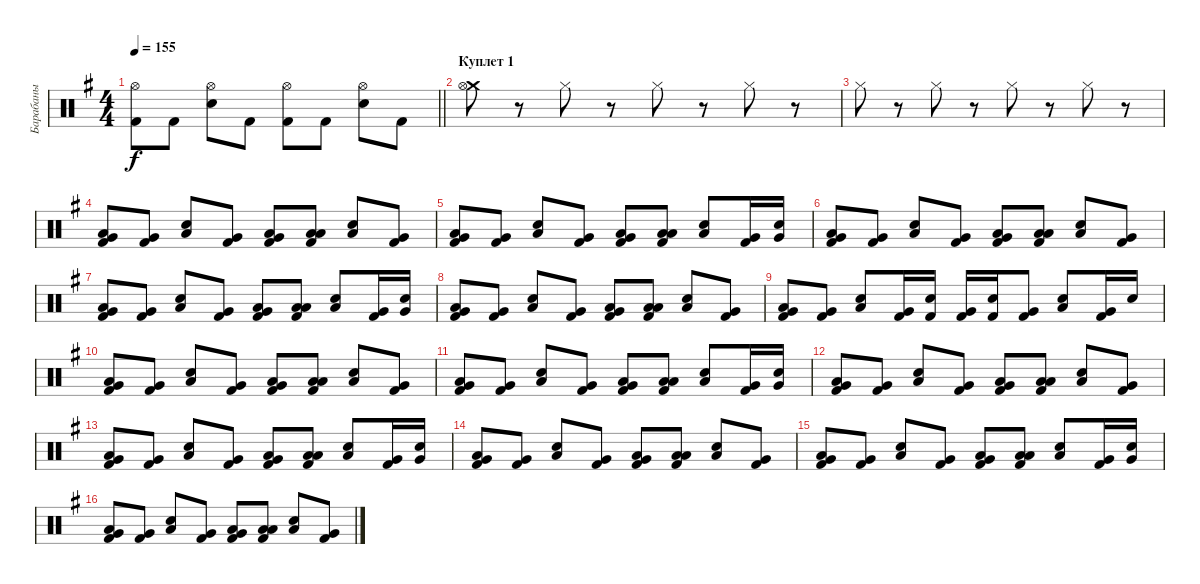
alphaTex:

\track ("Барабаны" "Барабаны") {instrument percussion}
\staff {score}
\articulation defaults
\ts (4 4)
\tempo 155
\clef neutral
\barLineRight lightlight
\ks eminor
("Kick (hit) 2" "Hi-Hat (open)").8{dy f} "Kick (hit) 2".8 ("Electric Snare (hit)" "Hi-Hat (open)").8 "Kick (hit) 2".8 ("Kick (hit) 2" "Hi-Hat (open)").8 "Kick (hit) 2".8 ("Electric Snare (hit)" "Hi-Hat (open)").8 "Kick (hit) 2".8 |
\section ("" "Куплет 1")
("Crash medium (hit)" "Hi-Hat (open)").8 r.8 "Hi-Hat (closed)".8 r.8 "Hi-Hat (closed)".8 r.8 "Hi-Hat (closed)".8 r.8 |
"Hi-Hat (closed)".8 r.8 "Hi-Hat (closed)".8 r.8 "Hi-Hat (closed)".8 r.8 "Hi-Hat (closed)".8 r.8 |
("Very Low Tom (hit)" "Kick (hit) 2" "Low Floor Tom (hit)").8 ("Very Low Tom (hit)" "Kick (hit) 2").8 ("Electric Snare (hit)" "Low Floor Tom (hit)").8 ("Very Low Tom (hit)" "Kick (hit) 2").8 ("Very Low Tom (hit)" "Kick (hit) 2" "Low Floor Tom (hit)").8 ("Low Floor Tom (hit)" "Kick (hit) 2" "Low Floor Tom (hit)").8 ("Electric Snare (hit)" "Low Floor Tom (hit)").8 ("Very Low Tom (hit)" "Kick (hit) 2").8 |
("Very Low Tom (hit)" "Kick (hit) 2" "Low Floor Tom (hit)").8 ("Very Low Tom (hit)" "Kick (hit) 2").8 ("Electric Snare (hit)" "Low Floor Tom (hit)").8 ("Very Low Tom (hit)" "Kick (hit) 2").8 ("Very Low Tom (hit)" "Kick (hit) 2" "Low Floor Tom (hit)").8 ("Low Floor Tom (hit)" "Kick (hit) 2" "Low Floor Tom (hit)").8 ("Electric Snare (hit)" "Low Floor Tom (hit)").8 ("Very Low Tom (hit)" "Kick (hit) 2").16 ("Electric Snare (hit)" "Very Low Tom (hit)").16 |
("Very Low Tom (hit)" "Kick (hit) 2" "Low Floor Tom (hit)").8 ("Very Low Tom (hit)" "Kick (hit) 2").8 ("Electric Snare (hit)" "Low Floor Tom (hit)").8 ("Very Low Tom (hit)" "Kick (hit) 2").8 ("Very Low Tom (hit)" "Kick (hit) 2" "Low Floor Tom (hit)").8 ("Low Floor Tom (hit)" "Kick (hit) 2" "Low Floor Tom (hit)").8 ("Electric Snare (hit)" "Low Floor Tom (hit)").8 ("Very Low Tom (hit)" "Kick (hit) 2").8 |
("Very Low Tom (hit)" "Kick (hit) 2" "Low Floor Tom (hit)").8 ("Very Low Tom (hit)" "Kick (hit) 2").8 ("Electric Snare (hit)" "Low Floor Tom (hit)").8 ("Very Low Tom (hit)" "Kick (hit) 2").8 ("Very Low Tom (hit)" "Kick (hit) 2" "Low Floor Tom (hit)").8 ("Low Floor Tom (hit)" "Kick (hit) 2" "Low Floor Tom (hit)").8 ("Electric Snare (hit)" "Low Floor Tom (hit)").8 ("Very Low Tom (hit)" "Kick (hit) 2").16 ("Electric Snare (hit)" "Very Low Tom (hit)").16 |
("Very Low Tom (hit)" "Kick (hit) 2" "Low Floor Tom (hit)").8 ("Very Low Tom (hit)" "Kick (hit) 2").8 ("Electric Snare (hit)" "Low Floor Tom (hit)").8 ("Very Low Tom (hit)" "Kick (hit) 2").8 ("Very Low Tom (hit)" "Kick (hit) 2" "Low Floor Tom (hit)").8 ("Low Floor Tom (hit)" "Kick (hit) 2" "Low Floor Tom (hit)").8 ("Electric Snare (hit)" "Low Floor Tom (hit)").8 ("Very Low Tom (hit)" "Kick (hit) 2").8 |
("Very Low Tom (hit)" "Kick (hit) 2" "Low Floor Tom (hit)").8 ("Very Low Tom (hit)" "Kick (hit) 2").8 ("Electric Snare (hit)" "Low Floor Tom (hit)").8 ("Very Low Tom (hit)" "Kick (hit) 2").16 ("Electric Snare (hit)" "Kick (hit) 2").16 ("Very Low Tom (hit)" "Kick (hit) 2").16 ("Electric Snare (hit)" "Kick (hit) 2").16 ("Very Low Tom (hit)" "Kick (hit) 2").8 ("Electric Snare (hit)" "Low Floor Tom (hit)").8 ("Very Low Tom (hit)" "Kick (hit) 2").16 "Electric Snare (hit)".16 |
("Very Low Tom (hit)" "Kick (hit) 2" "Low Floor Tom (hit)").8 ("Very Low Tom (hit)" "Kick (hit) 2").8 ("Electric Snare (hit)" "Low Floor Tom (hit)").8 ("Very Low Tom (hit)" "Kick (hit) 2").8 ("Very Low Tom (hit)" "Kick (hit) 2" "Low Floor Tom (hit)").8 ("Low Floor Tom (hit)" "Kick (hit) 2" "Low Floor Tom (hit)").8 ("Electric Snare (hit)" "Low Floor Tom (hit)").8 ("Very Low Tom (hit)" "Kick (hit) 2").8 |
("Very Low Tom (hit)" "Kick (hit) 2" "Low Floor Tom (hit)").8 ("Very Low Tom (hit)" "Kick (hit) 2").8 ("Electric Snare (hit)" "Low Floor Tom (hit)").8 ("Very Low Tom (hit)" "Kick (hit) 2").8 ("Very Low Tom (hit)" "Kick (hit) 2" "Low Floor Tom (hit)").8 ("Low Floor Tom (hit)" "Kick (hit) 2" "Low Floor Tom (hit)").8 ("Electric Snare (hit)" "Low Floor Tom (hit)").8 ("Very Low Tom (hit)" "Kick (hit) 2").16 ("Electric Snare (hit)" "Very Low Tom (hit)").16 |
("Very Low Tom (hit)" "Kick (hit) 2" "Low Floor Tom (hit)").8 ("Very Low Tom (hit)" "Kick (hit) 2").8 ("Electric Snare (hit)" "Low Floor Tom (hit)").8 ("Very Low Tom (hit)" "Kick (hit) 2").8 ("Very Low Tom (hit)" "Kick (hit) 2" "Low Floor Tom (hit)").8 ("Low Floor Tom (hit)" "Kick (hit) 2" "Low Floor Tom (hit)").8 ("Electric Snare (hit)" "Low Floor Tom (hit)").8 ("Very Low Tom (hit)" "Kick (hit) 2").8 |
("Very Low Tom (hit)" "Kick (hit) 2" "Low Floor Tom (hit)").8 ("Very Low Tom (hit)" "Kick (hit) 2").8 ("Electric Snare (hit)" "Low Floor Tom (hit)").8 ("Very Low Tom (hit)" "Kick (hit) 2").8 ("Very Low Tom (hit)" "Kick (hit) 2" "Low Floor Tom (hit)").8 ("Low Floor Tom (hit)" "Kick (hit) 2" "Low Floor Tom (hit)").8 ("Electric Snare (hit)" "Low Floor Tom (hit)").8 ("Very Low Tom (hit)" "Kick (hit) 2").16 ("Electric Snare (hit)" "Very Low Tom (hit)").16 |
("Very Low Tom (hit)" "Kick (hit) 2" "Low Floor Tom (hit)").8 ("Very Low Tom (hit)" "Kick (hit) 2").8 ("Electric Snare (hit)" "Low Floor Tom (hit)").8 ("Very Low Tom (hit)" "Kick (hit) 2").8 ("Very Low Tom (hit)" "Kick (hit) 2" "Low Floor Tom (hit)").8 ("Low Floor Tom (hit)" "Kick (hit) 2" "Low Floor Tom (hit)").8 ("Electric Snare (hit)" "Low Floor Tom (hit)").8 ("Very Low Tom (hit)" "Kick (hit) 2").8 |
("Very Low Tom (hit)" "Kick (hit) 2" "Low Floor Tom (hit)").8 ("Very Low Tom (hit)" "Kick (hit) 2").8 ("Electric Snare (hit)" "Low Floor Tom (hit)").8 ("Very Low Tom (hit)" "Kick (hit) 2").8 ("Very Low Tom (hit)" "Kick (hit) 2" "Low Floor Tom (hit)").8 ("Low Floor Tom (hit)" "Kick (hit) 2" "Low Floor Tom (hit)").8 ("Electric Snare (hit)" "Low Floor Tom (hit)").8 ("Very Low Tom (hit)" "Kick (hit) 2").16 ("Electric Snare (hit)" "Very Low Tom (hit)").16 |
("Very Low Tom (hit)" "Kick (hit) 2" "Low Floor Tom (hit)").8 ("Very Low Tom (hit)" "Kick (hit) 2").8 ("Electric Snare (hit)" "Low Floor Tom (hit)").8 ("Very Low Tom (hit)" "Kick (hit) 2").8 ("Very Low Tom (hit)" "Kick (hit) 2" "Low Floor Tom (hit)").8 ("Low Floor Tom (hit)" "Kick (hit) 2" "Low Floor Tom (hit)").8 ("Electric Snare (hit)" "Low Floor Tom (hit)").8 ("Very Low Tom (hit)" "Kick (hit) 2").8
